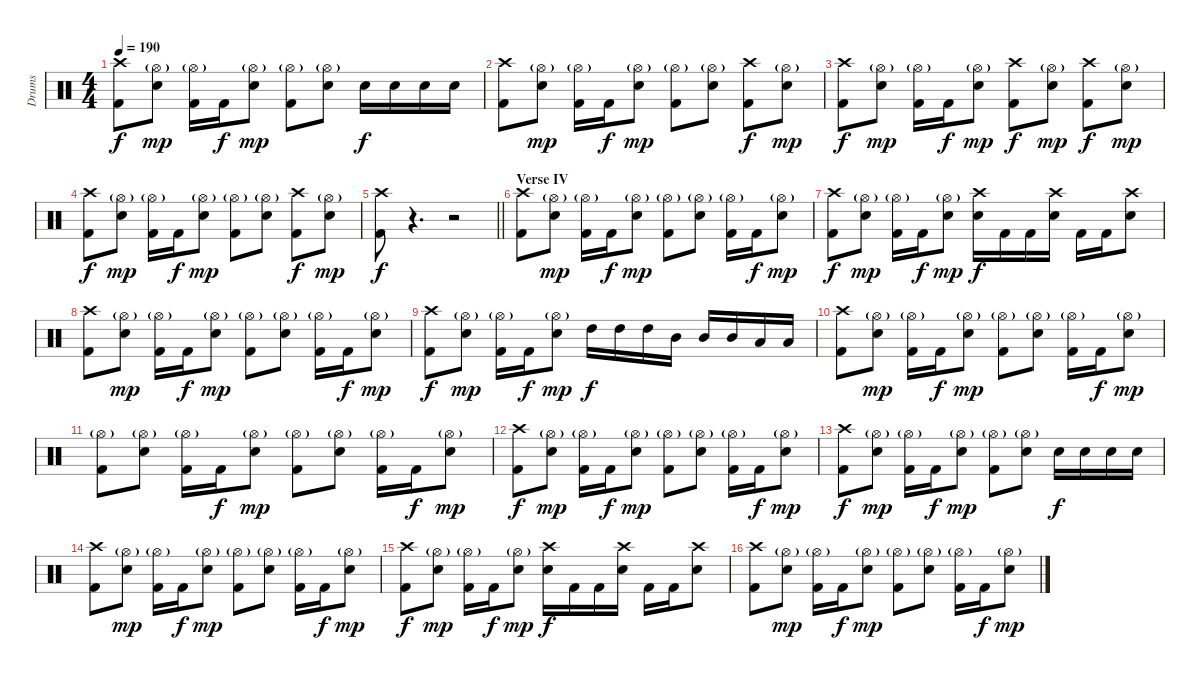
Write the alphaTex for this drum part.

\track ("Drums" "Drums") {instrument percussion}
\staff {score}
\articulation defaults
\ts (4 4)
\tempo 190
\clef neutral
\ks c
("Crash high (hit)" "Kick (hit) 2").8{dy f} ("Hi-Hat (open)"{g} "Electric Snare (hit)").8{dy mp} ("Hi-Hat (open)"{g} "Kick (hit) 2").16 "Kick (hit) 2".16{dy f} ("Hi-Hat (open)"{g} "Electric Snare (hit)").8{dy mp} ("Hi-Hat (open)"{g} "Kick (hit) 2").8 ("Hi-Hat (open)"{g} "Electric Snare (hit)").8 "Electric Snare (hit)".16{dy f} "Electric Snare (hit)".16 "Electric Snare (hit)".16 "Electric Snare (hit)".16 |
("Crash high (hit)" "Kick (hit) 2").8 ("Hi-Hat (open)"{g} "Electric Snare (hit)").8{dy mp} ("Hi-Hat (open)"{g} "Kick (hit) 2").16 "Kick (hit) 2".16{dy f} ("Hi-Hat (open)"{g} "Electric Snare (hit)").8{dy mp} ("Hi-Hat (open)"{g} "Kick (hit) 2").8 ("Hi-Hat (open)"{g} "Electric Snare (hit)").8 ("Crash high (hit)" "Kick (hit) 2").8{dy f} ("Hi-Hat (open)"{g} "Electric Snare (hit)").8{dy mp} |
("Crash high (hit)" "Kick (hit) 2").8{dy f} ("Hi-Hat (open)"{g} "Electric Snare (hit)").8{dy mp} ("Hi-Hat (open)"{g} "Kick (hit) 2").16 "Kick (hit) 2".16{dy f} ("Hi-Hat (open)"{g} "Electric Snare (hit)").8{dy mp} ("Crash high (hit)" "Kick (hit) 2").8{dy f} ("Hi-Hat (open)"{g} "Electric Snare (hit)").8{dy mp} ("Crash high (hit)" "Kick (hit) 2").8{dy f} ("Hi-Hat (open)"{g} "Electric Snare (hit)").8{dy mp} |
("Crash high (hit)" "Kick (hit) 2").8{dy f} ("Hi-Hat (open)"{g} "Electric Snare (hit)").8{dy mp} ("Hi-Hat (open)"{g} "Kick (hit) 2").16 "Kick (hit) 2".16{dy f} ("Hi-Hat (open)"{g} "Electric Snare (hit)").8{dy mp} ("Hi-Hat (open)"{g} "Kick (hit) 2").8 ("Hi-Hat (open)"{g} "Electric Snare (hit)").8 ("Crash high (hit)" "Kick (hit) 2").8{dy f} ("Hi-Hat (open)"{g} "Electric Snare (hit)").8{dy mp} |
\barLineRight lightlight
("Crash high (hit)" "Kick (hit) 2").8{dy f} r.4{d} r.2 |
\section ("" "Verse IV")
("Crash high (hit)" "Kick (hit) 2").8 ("Hi-Hat (open)"{g} "Electric Snare (hit)").8{dy mp} ("Hi-Hat (open)"{g} "Kick (hit) 2").16 "Kick (hit) 2".16{dy f} ("Hi-Hat (open)"{g} "Electric Snare (hit)").8{dy mp} ("Hi-Hat (open)"{g} "Kick (hit) 2").8 ("Hi-Hat (open)"{g} "Electric Snare (hit)").8 ("Hi-Hat (open)"{g} "Kick (hit) 2").16 "Kick (hit) 2".16{dy f} ("Hi-Hat (open)"{g} "Electric Snare (hit)").8{dy mp} |
("Crash high (hit)" "Kick (hit) 2").8{dy f} ("Hi-Hat (open)"{g} "Electric Snare (hit)").8{dy mp} ("Hi-Hat (open)"{g} "Kick (hit) 2").16 "Kick (hit) 2".16{dy f} ("Hi-Hat (open)"{g} "Electric Snare (hit)").8{dy mp} ("Crash high (hit)" "Electric Snare (hit)").16{dy f} "Kick (hit) 2".16 "Kick (hit) 2".16 ("Crash high (hit)" "Electric Snare (hit)").16 "Kick (hit) 2".16 "Kick (hit) 2".16 ("Crash high (hit)" "Electric Snare (hit)").8 |
("Crash high (hit)" "Kick (hit) 2").8 ("Hi-Hat (open)"{g} "Electric Snare (hit)").8{dy mp} ("Hi-Hat (open)"{g} "Kick (hit) 2").16 "Kick (hit) 2".16{dy f} ("Hi-Hat (open)"{g} "Electric Snare (hit)").8{dy mp} ("Hi-Hat (open)"{g} "Kick (hit) 2").8 ("Hi-Hat (open)"{g} "Electric Snare (hit)").8 ("Hi-Hat (open)"{g} "Kick (hit) 2").16 "Kick (hit) 2".16{dy f} ("Hi-Hat (open)"{g} "Electric Snare (hit)").8{dy mp} |
("Crash high (hit)" "Kick (hit) 2").8{dy f} ("Hi-Hat (open)"{g} "Electric Snare (hit)").8{dy mp} ("Hi-Hat (open)"{g} "Kick (hit) 2").16 "Kick (hit) 2".16{dy f} ("Hi-Hat (open)"{g} "Electric Snare (hit)").8{dy mp} "High Tom (hit)".16{dy f} "High Tom (hit)".16 "High Tom (hit)".16 "Mid Tom (hit)".16 "Mid Tom (hit)".16 "Mid Tom (hit)".16 "Low Tom (hit)".16 "Low Tom (hit)".16 |
("Crash high (hit)" "Kick (hit) 2").8 ("Hi-Hat (open)"{g} "Electric Snare (hit)").8{dy mp} ("Hi-Hat (open)"{g} "Kick (hit) 2").16 "Kick (hit) 2".16{dy f} ("Hi-Hat (open)"{g} "Electric Snare (hit)").8{dy mp} ("Hi-Hat (open)"{g} "Kick (hit) 2").8 ("Hi-Hat (open)"{g} "Electric Snare (hit)").8 ("Hi-Hat (open)"{g} "Kick (hit) 2").16 "Kick (hit) 2".16{dy f} ("Hi-Hat (open)"{g} "Electric Snare (hit)").8{dy mp} |
("Hi-Hat (open)"{g} "Kick (hit) 2").8 ("Hi-Hat (open)"{g} "Electric Snare (hit)").8 ("Hi-Hat (open)"{g} "Kick (hit) 2").16 "Kick (hit) 2".16{dy f} ("Hi-Hat (open)"{g} "Electric Snare (hit)").8{dy mp} ("Hi-Hat (open)"{g} "Kick (hit) 2").8 ("Hi-Hat (open)"{g} "Electric Snare (hit)").8 ("Hi-Hat (open)"{g} "Kick (hit) 2").16 "Kick (hit) 2".16{dy f} ("Hi-Hat (open)"{g} "Electric Snare (hit)").8{dy mp} |
("Crash high (hit)" "Kick (hit) 2").8{dy f} ("Hi-Hat (open)"{g} "Electric Snare (hit)").8{dy mp} ("Hi-Hat (open)"{g} "Kick (hit) 2").16 "Kick (hit) 2".16{dy f} ("Hi-Hat (open)"{g} "Electric Snare (hit)").8{dy mp} ("Hi-Hat (open)"{g} "Kick (hit) 2").8 ("Hi-Hat (open)"{g} "Electric Snare (hit)").8 ("Hi-Hat (open)"{g} "Kick (hit) 2").16 "Kick (hit) 2".16{dy f} ("Hi-Hat (open)"{g} "Electric Snare (hit)").8{dy mp} |
("Crash high (hit)" "Kick (hit) 2").8{dy f} ("Hi-Hat (open)"{g} "Electric Snare (hit)").8{dy mp} ("Hi-Hat (open)"{g} "Kick (hit) 2").16 "Kick (hit) 2".16{dy f} ("Hi-Hat (open)"{g} "Electric Snare (hit)").8{dy mp} ("Hi-Hat (open)"{g} "Kick (hit) 2").8 ("Hi-Hat (open)"{g} "Electric Snare (hit)").8 "Electric Snare (hit)".16{dy f} "Electric Snare (hit)".16 "Electric Snare (hit)".16 "Electric Snare (hit)".16 |
("Crash high (hit)" "Kick (hit) 2").8 ("Hi-Hat (open)"{g} "Electric Snare (hit)").8{dy mp} ("Hi-Hat (open)"{g} "Kick (hit) 2").16 "Kick (hit) 2".16{dy f} ("Hi-Hat (open)"{g} "Electric Snare (hit)").8{dy mp} ("Hi-Hat (open)"{g} "Kick (hit) 2").8 ("Hi-Hat (open)"{g} "Electric Snare (hit)").8 ("Hi-Hat (open)"{g} "Kick (hit) 2").16 "Kick (hit) 2".16{dy f} ("Hi-Hat (open)"{g} "Electric Snare (hit)").8{dy mp} |
("Crash high (hit)" "Kick (hit) 2").8{dy f} ("Hi-Hat (open)"{g} "Electric Snare (hit)").8{dy mp} ("Hi-Hat (open)"{g} "Kick (hit) 2").16 "Kick (hit) 2".16{dy f} ("Hi-Hat (open)"{g} "Electric Snare (hit)").8{dy mp} ("Crash high (hit)" "Electric Snare (hit)").16{dy f} "Kick (hit) 2".16 "Kick (hit) 2".16 ("Crash high (hit)" "Electric Snare (hit)").16 "Kick (hit) 2".16 "Kick (hit) 2".16 ("Crash high (hit)" "Electric Snare (hit)").8 |
("Crash high (hit)" "Kick (hit) 2").8 ("Hi-Hat (open)"{g} "Electric Snare (hit)").8{dy mp} ("Hi-Hat (open)"{g} "Kick (hit) 2").16 "Kick (hit) 2".16{dy f} ("Hi-Hat (open)"{g} "Electric Snare (hit)").8{dy mp} ("Hi-Hat (open)"{g} "Kick (hit) 2").8 ("Hi-Hat (open)"{g} "Electric Snare (hit)").8 ("Hi-Hat (open)"{g} "Kick (hit) 2").16 "Kick (hit) 2".16{dy f} ("Hi-Hat (open)"{g} "Electric Snare (hit)").8{dy mp}
